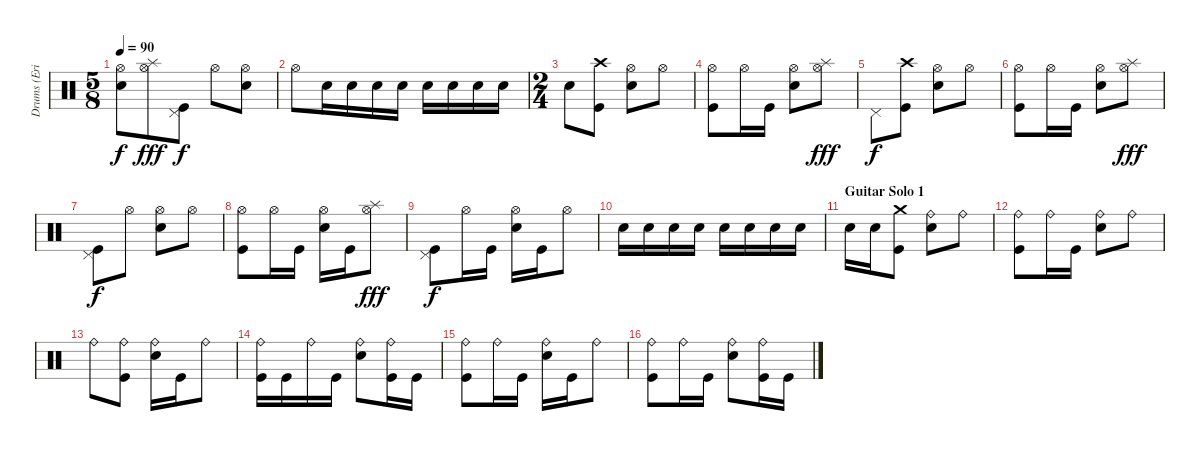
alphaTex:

\track ("Drums (Eric Singer)" "Drums (Eri") {instrument percussion}
\staff {score}
\articulation defaults
\ts (5 8)
\tempo 90
\clef neutral
\ks c
("Hi-Hat (open)" "Electric Snare (hit)").8{dy f} ("Splash (hit)" "Hi-Hat (open)").8{dy fff} ("Pedal Hi-Hat (hit)" "Kick (hit)").8{dy f} "Hi-Hat (open)".8 ("Hi-Hat (open)" "Electric Snare (hit)").8 |
"Hi-Hat (open)".8 "Electric Snare (hit)".16 "Electric Snare (hit)".16 "Electric Snare (hit)".16 "Electric Snare (hit)".16 "Electric Snare (hit)".16 "Electric Snare (hit)".16 "Electric Snare (hit)".16 "Electric Snare (hit)".16 |
\ts (2 4)
"Electric Snare (hit)".8 ("Crash high (hit)" "Kick (hit)").8 ("Hi-Hat (open)" "Electric Snare (hit)").8 "Hi-Hat (open)".8 |
("Hi-Hat (open)" "Kick (hit)").8 "Hi-Hat (open)".16 "Kick (hit)".16 ("Hi-Hat (open)" "Electric Snare (hit)").8 ("Splash (hit)" "Hi-Hat (open)").8{dy fff} |
"Pedal Hi-Hat (hit)".8{dy f} ("Crash high (hit)" "Kick (hit)").8 ("Hi-Hat (open)" "Electric Snare (hit)").8 "Hi-Hat (open)".8 |
("Hi-Hat (open)" "Kick (hit)").8 "Hi-Hat (open)".16 "Kick (hit)".16 ("Hi-Hat (open)" "Electric Snare (hit)").8 ("Splash (hit)" "Hi-Hat (open)").8{dy fff} |
("Pedal Hi-Hat (hit)" "Kick (hit)").8{dy f} "Hi-Hat (open)".8 ("Hi-Hat (open)" "Electric Snare (hit)").8 "Hi-Hat (open)".8 |
("Hi-Hat (open)" "Kick (hit)").8 "Hi-Hat (open)".16 "Kick (hit)".16 ("Hi-Hat (open)" "Electric Snare (hit)").16 "Kick (hit)".16 ("Splash (hit)" "Hi-Hat (open)").8{dy fff} |
("Pedal Hi-Hat (hit)" "Kick (hit)").8{dy f} "Hi-Hat (open)".16 "Kick (hit)".16 ("Hi-Hat (open)" "Electric Snare (hit)").16 "Kick (hit)".16 "Hi-Hat (open)".8 |
"Electric Snare (hit)".16 "Electric Snare (hit)".16 "Electric Snare (hit)".16 "Electric Snare (hit)".16 "Electric Snare (hit)".16 "Electric Snare (hit)".16 "Electric Snare (hit)".16 "Electric Snare (hit)".16 |
\section ("" "Guitar Solo 1")
"Electric Snare (hit)".16 "Electric Snare (hit)".16 ("Crash medium (hit)" "Kick (hit)").8 ("Ride (bell)" "Electric Snare (hit)").8 "Ride (bell)".8 |
("Ride (bell)" "Kick (hit)").8 "Ride (bell)".16 "Kick (hit)".16 ("Ride (bell)" "Electric Snare (hit)").8 "Ride (bell)".8 |
"Ride (bell)".8 ("Ride (bell)" "Kick (hit)").8 ("Ride (bell)" "Electric Snare (hit)").16 "Kick (hit)".16 "Ride (bell)".8 |
("Ride (bell)" "Kick (hit)").16 "Kick (hit)".16 "Ride (bell)".16 "Kick (hit)".16 ("Ride (bell)" "Electric Snare (hit)").8 ("Ride (bell)" "Kick (hit)").16 "Kick (hit)".16 |
("Ride (bell)" "Kick (hit)").8 "Ride (bell)".16 "Kick (hit)".16 ("Ride (bell)" "Electric Snare (hit)").16 "Kick (hit)".16 "Ride (bell)".8 |
("Ride (bell)" "Kick (hit)").8 "Ride (bell)".16 "Kick (hit)".16 ("Ride (bell)" "Electric Snare (hit)").8 ("Ride (bell)" "Kick (hit)").16 "Kick (hit)".16
